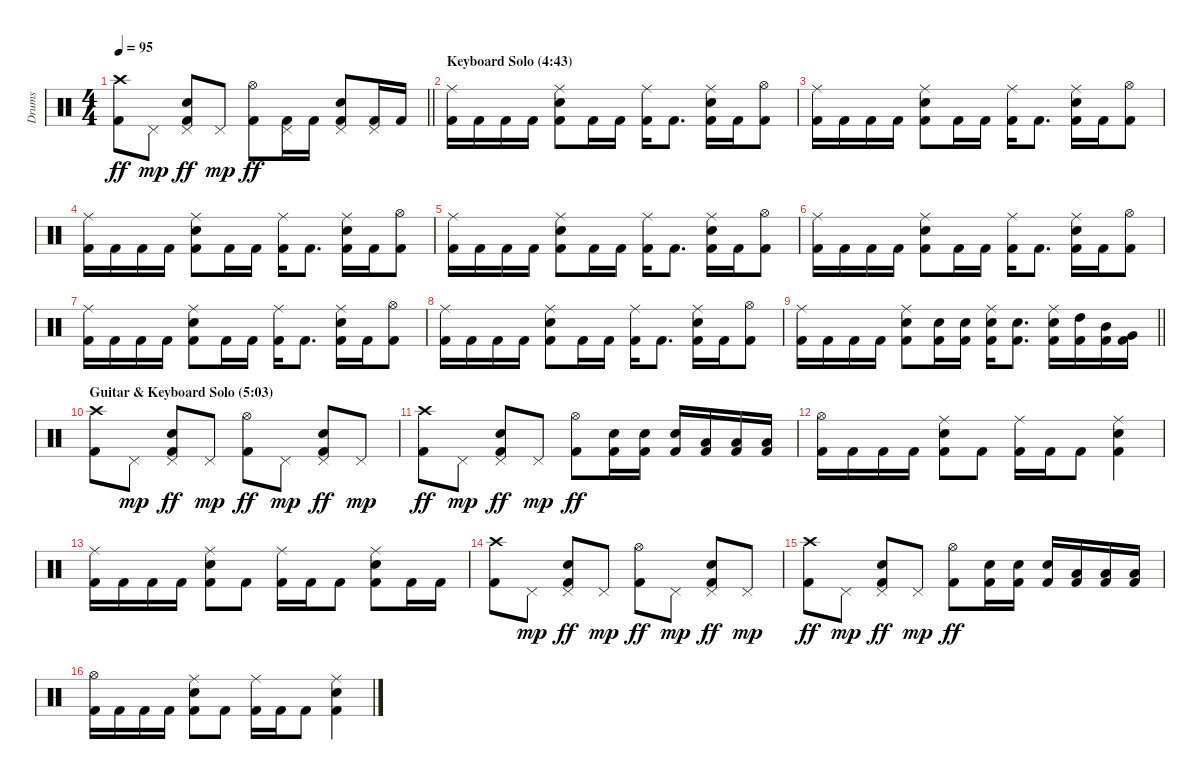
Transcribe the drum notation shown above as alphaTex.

\track ("Drums" "Drums") {instrument percussion}
\staff {score}
\articulation defaults
\ts (4 4)
\tempo 95
\clef neutral
\barLineRight lightlight
\ks c
("Crash high (hit)" "Kick (hit) 2").8{dy ff} "Pedal Hi-Hat (hit)".8{dy mp} ("Pedal Hi-Hat (hit)" "Snare (hit) 2" "Kick (hit) 2").8{dy ff} "Pedal Hi-Hat (hit)".8{dy mp} ("Hi-Hat (open)" "Kick (hit) 2").8{dy ff} ("Pedal Hi-Hat (hit)" "Kick (hit) 2").16 "Kick (hit) 2".16 ("Pedal Hi-Hat (hit)" "Snare (hit) 2" "Kick (hit) 2").8 ("Pedal Hi-Hat (hit)" "Kick (hit) 2").16 "Kick (hit) 2".16 |
\section ("" "Keyboard Solo (4:43)")
("Ride (middle)" "Kick (hit) 2").16 "Kick (hit) 2".16 "Kick (hit) 2".16 "Kick (hit) 2".16 ("Ride (middle)" "Snare (hit) 2" "Kick (hit) 2").8 "Kick (hit) 2".16 "Kick (hit) 2".16 ("Ride (middle)" "Kick (hit) 2").16 "Kick (hit) 2".8{d} ("Ride (middle)" "Snare (hit) 2" "Kick (hit) 2").16 "Kick (hit) 2".16 ("Hi-Hat (open)" "Kick (hit) 2").8 |
("Ride (middle)" "Kick (hit) 2").16 "Kick (hit) 2".16 "Kick (hit) 2".16 "Kick (hit) 2".16 ("Ride (middle)" "Snare (hit) 2" "Kick (hit) 2").8 "Kick (hit) 2".16 "Kick (hit) 2".16 ("Ride (middle)" "Kick (hit) 2").16 "Kick (hit) 2".8{d} ("Ride (middle)" "Snare (hit) 2" "Kick (hit) 2").16 "Kick (hit) 2".16 ("Hi-Hat (open)" "Kick (hit) 2").8 |
("Ride (middle)" "Kick (hit) 2").16 "Kick (hit) 2".16 "Kick (hit) 2".16 "Kick (hit) 2".16 ("Ride (middle)" "Snare (hit) 2" "Kick (hit) 2").8 "Kick (hit) 2".16 "Kick (hit) 2".16 ("Ride (middle)" "Kick (hit) 2").16 "Kick (hit) 2".8{d} ("Ride (middle)" "Snare (hit) 2" "Kick (hit) 2").16 "Kick (hit) 2".16 ("Hi-Hat (open)" "Kick (hit) 2").8 |
("Ride (middle)" "Kick (hit) 2").16 "Kick (hit) 2".16 "Kick (hit) 2".16 "Kick (hit) 2".16 ("Ride (middle)" "Snare (hit) 2" "Kick (hit) 2").8 "Kick (hit) 2".16 "Kick (hit) 2".16 ("Ride (middle)" "Kick (hit) 2").16 "Kick (hit) 2".8{d} ("Ride (middle)" "Snare (hit) 2" "Kick (hit) 2").16 "Kick (hit) 2".16 ("Hi-Hat (open)" "Kick (hit) 2").8 |
("Ride (middle)" "Kick (hit) 2").16 "Kick (hit) 2".16 "Kick (hit) 2".16 "Kick (hit) 2".16 ("Ride (middle)" "Snare (hit) 2" "Kick (hit) 2").8 "Kick (hit) 2".16 "Kick (hit) 2".16 ("Ride (middle)" "Kick (hit) 2").16 "Kick (hit) 2".8{d} ("Ride (middle)" "Snare (hit) 2" "Kick (hit) 2").16 "Kick (hit) 2".16 ("Hi-Hat (open)" "Kick (hit) 2").8 |
("Ride (middle)" "Kick (hit) 2").16 "Kick (hit) 2".16 "Kick (hit) 2".16 "Kick (hit) 2".16 ("Ride (middle)" "Snare (hit) 2" "Kick (hit) 2").8 "Kick (hit) 2".16 "Kick (hit) 2".16 ("Ride (middle)" "Kick (hit) 2").16 "Kick (hit) 2".8{d} ("Ride (middle)" "Snare (hit) 2" "Kick (hit) 2").16 "Kick (hit) 2".16 ("Hi-Hat (open)" "Kick (hit) 2").8 |
("Ride (middle)" "Kick (hit) 2").16 "Kick (hit) 2".16 "Kick (hit) 2".16 "Kick (hit) 2".16 ("Ride (middle)" "Snare (hit) 2" "Kick (hit) 2").8 "Kick (hit) 2".16 "Kick (hit) 2".16 ("Ride (middle)" "Kick (hit) 2").16 "Kick (hit) 2".8{d} ("Ride (middle)" "Snare (hit) 2" "Kick (hit) 2").16 "Kick (hit) 2".16 ("Hi-Hat (open)" "Kick (hit) 2").8 |
\barLineRight lightlight
("Ride (middle)" "Kick (hit) 2").16 "Kick (hit) 2".16 "Kick (hit) 2".16 "Kick (hit) 2".16 ("Ride (middle)" "Snare (hit) 2" "Kick (hit) 2").8 ("Snare (hit) 2" "Kick (hit) 2").16 ("Snare (hit) 2" "Kick (hit) 2").16 ("Ride (middle)" "Snare (hit) 2" "Kick (hit) 2").16 ("Snare (hit) 2" "Kick (hit) 2").8{d} ("Ride (middle)" "Snare (hit) 2" "Kick (hit) 2").16 ("High Tom (hit)" "Kick (hit) 2").16 ("Mid Tom (hit)" "Kick (hit) 2").16 ("Very Low Tom (hit)" "Kick (hit) 2").16 |
\section ("" "Guitar & Keyboard Solo (5:03)")
("Crash high (hit)" "Kick (hit) 2").8 "Pedal Hi-Hat (hit)".8{dy mp} ("Pedal Hi-Hat (hit)" "Snare (hit) 2" "Kick (hit) 2").8{dy ff} "Pedal Hi-Hat (hit)".8{dy mp} ("Hi-Hat (open)" "Kick (hit) 2").8{dy ff} "Pedal Hi-Hat (hit)".8{dy mp} ("Pedal Hi-Hat (hit)" "Snare (hit) 2" "Kick (hit) 2").8{dy ff} "Pedal Hi-Hat (hit)".8{dy mp} |
("Crash high (hit)" "Kick (hit) 2").8{dy ff} "Pedal Hi-Hat (hit)".8{dy mp} ("Pedal Hi-Hat (hit)" "Snare (hit) 2" "Kick (hit) 2").8{dy ff} "Pedal Hi-Hat (hit)".8{dy mp} ("Hi-Hat (open)" "Kick (hit) 2").8{dy ff} ("Snare (hit) 2" "Kick (hit) 2").16 ("Snare (hit) 2" "Kick (hit) 2").16 ("Snare (hit) 2" "Kick (hit) 2").16 ("Low Floor Tom (hit)" "Kick (hit) 2").16 ("Low Floor Tom (hit)" "Kick (hit) 2").16 ("Low Floor Tom (hit)" "Kick (hit) 2").16 |
("Hi-Hat (open)" "Kick (hit) 2").16 "Kick (hit) 2".16 "Kick (hit) 2".16 "Kick (hit) 2".16 ("Ride (middle)" "Snare (hit) 2" "Kick (hit) 2").8 "Kick (hit) 2".8 ("Ride (middle)" "Kick (hit) 2").16 "Kick (hit) 2".16 "Kick (hit) 2".8 ("Ride (middle)" "Snare (hit) 2" "Kick (hit) 2").4 |
("Ride (middle)" "Kick (hit) 2").16 "Kick (hit) 2".16 "Kick (hit) 2".16 "Kick (hit) 2".16 ("Ride (middle)" "Snare (hit) 2" "Kick (hit) 2").8 "Kick (hit) 2".8 ("Ride (middle)" "Kick (hit) 2").16 "Kick (hit) 2".16 "Kick (hit) 2".8 ("Ride (middle)" "Snare (hit) 2" "Kick (hit) 2").8 "Kick (hit) 2".16 "Kick (hit) 2".16 |
("Crash high (hit)" "Kick (hit) 2").8 "Pedal Hi-Hat (hit)".8{dy mp} ("Pedal Hi-Hat (hit)" "Snare (hit) 2" "Kick (hit) 2").8{dy ff} "Pedal Hi-Hat (hit)".8{dy mp} ("Hi-Hat (open)" "Kick (hit) 2").8{dy ff} "Pedal Hi-Hat (hit)".8{dy mp} ("Pedal Hi-Hat (hit)" "Snare (hit) 2" "Kick (hit) 2").8{dy ff} "Pedal Hi-Hat (hit)".8{dy mp} |
("Crash high (hit)" "Kick (hit) 2").8{dy ff} "Pedal Hi-Hat (hit)".8{dy mp} ("Pedal Hi-Hat (hit)" "Snare (hit) 2" "Kick (hit) 2").8{dy ff} "Pedal Hi-Hat (hit)".8{dy mp} ("Hi-Hat (open)" "Kick (hit) 2").8{dy ff} ("Snare (hit) 2" "Kick (hit) 2").16 ("Snare (hit) 2" "Kick (hit) 2").16 ("Snare (hit) 2" "Kick (hit) 2").16 ("Low Floor Tom (hit)" "Kick (hit) 2").16 ("Low Floor Tom (hit)" "Kick (hit) 2").16 ("Low Floor Tom (hit)" "Kick (hit) 2").16 |
("Hi-Hat (open)" "Kick (hit) 2").16 "Kick (hit) 2".16 "Kick (hit) 2".16 "Kick (hit) 2".16 ("Ride (middle)" "Snare (hit) 2" "Kick (hit) 2").8 "Kick (hit) 2".8 ("Ride (middle)" "Kick (hit) 2").16 "Kick (hit) 2".16 "Kick (hit) 2".8 ("Ride (middle)" "Snare (hit) 2" "Kick (hit) 2").4
